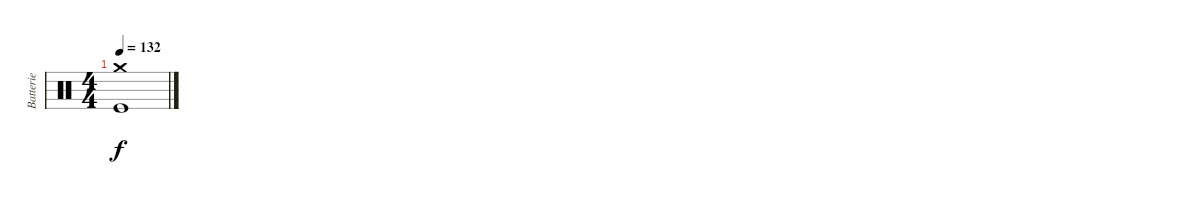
\track ("Batterie" "Batterie") {instrument percussion}
\staff {score}
\articulation defaults
\ts (4 4)
\section ("" "")
\tempo 132
\clef neutral
\ks c
("Crash medium (hit)" "Kick (hit)").1{dy f}
